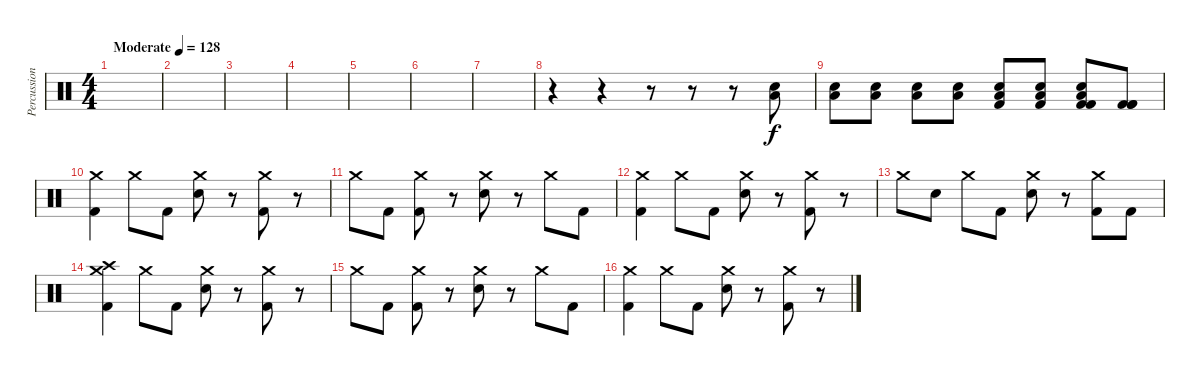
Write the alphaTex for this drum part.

\track ("Percussion" "Percussion") {instrument percussion}
\staff {score}
\articulation defaults
\ts (4 4)
\tempo (128 "Moderate")
\clef neutral
\ks c
|
|
|
|
|
|
|
r.4{volume 0} r.4 r.8 r.8 r.8 ("Low Floor Tom (hit)" "Snare (hit) 2").8{volume 13} |
("Low Floor Tom (hit)" "Snare (hit) 2").8 ("Low Floor Tom (hit)" "Snare (hit) 2").8 ("Low Floor Tom (hit)" "Snare (hit) 2").8 ("Low Floor Tom (hit)" "Snare (hit) 2").8 ("Kick (hit) 2" "Low Floor Tom (hit)" "Snare (hit) 2").8 ("Kick (hit) 2" "Low Floor Tom (hit)" "Snare (hit) 2").8 ("Kick (hit) 2" "Kick (hit) 2" "Low Floor Tom (hit)" "Snare (hit) 2").8 ("Kick (hit) 2" "Kick (hit) 2" "Kick (hit) 2").8 |
("Crash medium (hit)" "Kick (hit) 2").4 "Crash medium (hit)".8 "Kick (hit) 2".8 ("Crash medium (hit)" "Snare (hit) 2").8 r.8 ("Crash medium (hit)" "Kick (hit) 2").8 r.8 |
"Crash medium (hit)".8 "Kick (hit) 2".8 ("Crash medium (hit)" "Kick (hit) 2").8 r.8 ("Crash medium (hit)" "Snare (hit) 2").8 r.8 "Crash medium (hit)".8 "Kick (hit) 2".8 |
("Crash medium (hit)" "Kick (hit) 2").4 "Crash medium (hit)".8 "Kick (hit) 2".8 ("Crash medium (hit)" "Snare (hit) 2").8 r.8 ("Crash medium (hit)" "Kick (hit) 2").8 r.8 |
"Crash medium (hit)".8 "Snare (hit) 2".8 "Crash medium (hit)".8 "Kick (hit) 2".8 ("Crash medium (hit)" "Snare (hit) 2").8 r.8 ("Crash medium (hit)" "Kick (hit) 2").8 "Kick (hit) 2".8 |
("Crash high (hit)" "Crash medium (hit)" "Kick (hit) 2").4 "Crash medium (hit)".8 "Kick (hit) 2".8 ("Crash medium (hit)" "Snare (hit) 2").8 r.8 ("Crash medium (hit)" "Kick (hit) 2").8 r.8 |
"Crash medium (hit)".8 "Kick (hit) 2".8 ("Crash medium (hit)" "Kick (hit) 2").8 r.8 ("Crash medium (hit)" "Snare (hit) 2").8 r.8 "Crash medium (hit)".8 "Kick (hit) 2".8 |
("Crash medium (hit)" "Kick (hit) 2").4 "Crash medium (hit)".8 "Kick (hit) 2".8 ("Crash medium (hit)" "Snare (hit) 2").8 r.8 ("Crash medium (hit)" "Kick (hit) 2").8 r.8
